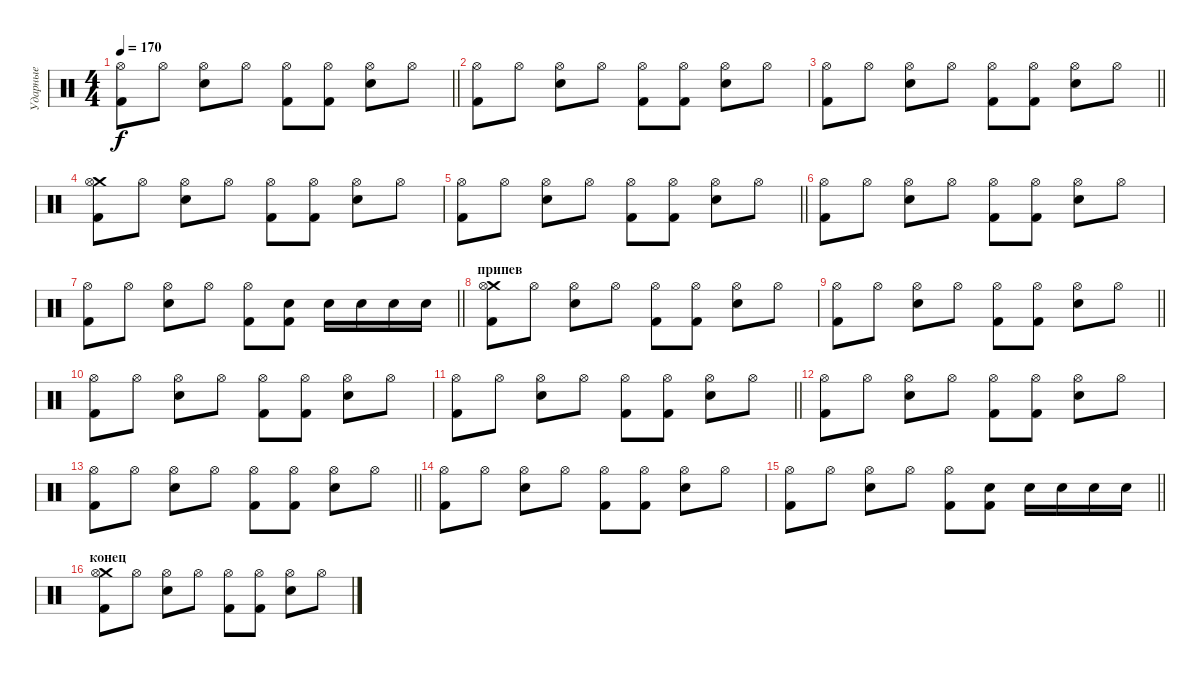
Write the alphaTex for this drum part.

\track ("Ударные" "Ударные") {instrument percussion}
\staff {score}
\articulation defaults
\ts (4 4)
\tempo 170
\clef neutral
\barLineRight lightlight
\ks c
("Hi-Hat (open)" "Kick (hit) 2").8{dy f} "Hi-Hat (open)".8 ("Hi-Hat (open)" "Electric Snare (hit)").8 "Hi-Hat (open)".8 ("Hi-Hat (open)" "Kick (hit) 2").8 ("Hi-Hat (open)" "Kick (hit) 2").8 ("Hi-Hat (open)" "Electric Snare (hit)").8 "Hi-Hat (open)".8 |
("Hi-Hat (open)" "Kick (hit) 2").8 "Hi-Hat (open)".8 ("Hi-Hat (open)" "Electric Snare (hit)").8 "Hi-Hat (open)".8 ("Hi-Hat (open)" "Kick (hit) 2").8 ("Hi-Hat (open)" "Kick (hit) 2").8 ("Hi-Hat (open)" "Electric Snare (hit)").8 "Hi-Hat (open)".8 |
\barLineRight lightlight
("Hi-Hat (open)" "Kick (hit) 2").8 "Hi-Hat (open)".8 ("Hi-Hat (open)" "Electric Snare (hit)").8 "Hi-Hat (open)".8 ("Hi-Hat (open)" "Kick (hit) 2").8 ("Hi-Hat (open)" "Kick (hit) 2").8 ("Hi-Hat (open)" "Electric Snare (hit)").8 "Hi-Hat (open)".8 |
("Crash medium (hit)" "Hi-Hat (open)" "Kick (hit) 2").8 "Hi-Hat (open)".8 ("Hi-Hat (open)" "Electric Snare (hit)").8 "Hi-Hat (open)".8 ("Hi-Hat (open)" "Kick (hit) 2").8 ("Hi-Hat (open)" "Kick (hit) 2").8 ("Hi-Hat (open)" "Electric Snare (hit)").8 "Hi-Hat (open)".8 |
\barLineRight lightlight
("Hi-Hat (open)" "Kick (hit) 2").8 "Hi-Hat (open)".8 ("Hi-Hat (open)" "Electric Snare (hit)").8 "Hi-Hat (open)".8 ("Hi-Hat (open)" "Kick (hit) 2").8 ("Hi-Hat (open)" "Kick (hit) 2").8 ("Hi-Hat (open)" "Electric Snare (hit)").8 "Hi-Hat (open)".8 |
("Hi-Hat (open)" "Kick (hit) 2").8 "Hi-Hat (open)".8 ("Hi-Hat (open)" "Electric Snare (hit)").8 "Hi-Hat (open)".8 ("Hi-Hat (open)" "Kick (hit) 2").8 ("Hi-Hat (open)" "Kick (hit) 2").8 ("Hi-Hat (open)" "Electric Snare (hit)").8 "Hi-Hat (open)".8 |
\barLineRight lightlight
("Hi-Hat (open)" "Kick (hit) 2").8 "Hi-Hat (open)".8 ("Hi-Hat (open)" "Electric Snare (hit)").8 "Hi-Hat (open)".8 ("Hi-Hat (open)" "Kick (hit) 2").8 ("Electric Snare (hit)" "Kick (hit) 2").8 "Electric Snare (hit)".16 "Electric Snare (hit)".16 "Electric Snare (hit)".16 "Electric Snare (hit)".16 |
\section ("" "припев")
("Crash medium (hit)" "Hi-Hat (open)" "Kick (hit) 2").8 "Hi-Hat (open)".8 ("Hi-Hat (open)" "Electric Snare (hit)").8 "Hi-Hat (open)".8 ("Hi-Hat (open)" "Kick (hit) 2").8 ("Hi-Hat (open)" "Kick (hit) 2").8 ("Hi-Hat (open)" "Electric Snare (hit)").8 "Hi-Hat (open)".8 |
\barLineRight lightlight
("Hi-Hat (open)" "Kick (hit) 2").8 "Hi-Hat (open)".8 ("Hi-Hat (open)" "Electric Snare (hit)").8 "Hi-Hat (open)".8 ("Hi-Hat (open)" "Kick (hit) 2").8 ("Hi-Hat (open)" "Kick (hit) 2").8 ("Hi-Hat (open)" "Electric Snare (hit)").8 "Hi-Hat (open)".8 |
("Hi-Hat (open)" "Kick (hit) 2").8 "Hi-Hat (open)".8 ("Hi-Hat (open)" "Electric Snare (hit)").8 "Hi-Hat (open)".8 ("Hi-Hat (open)" "Kick (hit) 2").8 ("Hi-Hat (open)" "Kick (hit) 2").8 ("Hi-Hat (open)" "Electric Snare (hit)").8 "Hi-Hat (open)".8 |
\barLineRight lightlight
("Hi-Hat (open)" "Kick (hit) 2").8 "Hi-Hat (open)".8 ("Hi-Hat (open)" "Electric Snare (hit)").8 "Hi-Hat (open)".8 ("Hi-Hat (open)" "Kick (hit) 2").8 ("Hi-Hat (open)" "Kick (hit) 2").8 ("Hi-Hat (open)" "Electric Snare (hit)").8 "Hi-Hat (open)".8 |
("Hi-Hat (open)" "Kick (hit) 2").8 "Hi-Hat (open)".8 ("Hi-Hat (open)" "Electric Snare (hit)").8 "Hi-Hat (open)".8 ("Hi-Hat (open)" "Kick (hit) 2").8 ("Hi-Hat (open)" "Kick (hit) 2").8 ("Hi-Hat (open)" "Electric Snare (hit)").8 "Hi-Hat (open)".8 |
\barLineRight lightlight
("Hi-Hat (open)" "Kick (hit) 2").8 "Hi-Hat (open)".8 ("Hi-Hat (open)" "Electric Snare (hit)").8 "Hi-Hat (open)".8 ("Hi-Hat (open)" "Kick (hit) 2").8 ("Hi-Hat (open)" "Kick (hit) 2").8 ("Hi-Hat (open)" "Electric Snare (hit)").8 "Hi-Hat (open)".8 |
("Hi-Hat (open)" "Kick (hit) 2").8 "Hi-Hat (open)".8 ("Hi-Hat (open)" "Electric Snare (hit)").8 "Hi-Hat (open)".8 ("Hi-Hat (open)" "Kick (hit) 2").8 ("Hi-Hat (open)" "Kick (hit) 2").8 ("Hi-Hat (open)" "Electric Snare (hit)").8 "Hi-Hat (open)".8 |
\barLineRight lightlight
("Hi-Hat (open)" "Kick (hit) 2").8 "Hi-Hat (open)".8 ("Hi-Hat (open)" "Electric Snare (hit)").8 "Hi-Hat (open)".8 ("Hi-Hat (open)" "Kick (hit) 2").8 ("Electric Snare (hit)" "Kick (hit) 2").8 "Electric Snare (hit)".16 "Electric Snare (hit)".16 "Electric Snare (hit)".16 "Electric Snare (hit)".16 |
\section ("" "конец")
("Crash medium (hit)" "Hi-Hat (open)" "Kick (hit) 2").8 "Hi-Hat (open)".8 ("Hi-Hat (open)" "Electric Snare (hit)").8 "Hi-Hat (open)".8 ("Hi-Hat (open)" "Kick (hit) 2").8 ("Hi-Hat (open)" "Kick (hit) 2").8 ("Hi-Hat (open)" "Electric Snare (hit)").8 "Hi-Hat (open)".8
